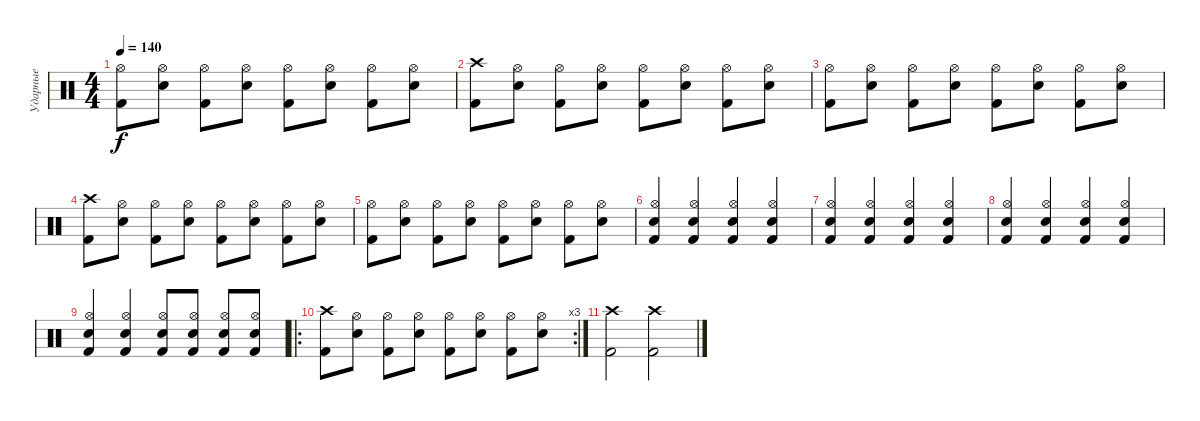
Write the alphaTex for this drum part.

\track ("Ударные" "Ударные") {instrument percussion}
\staff {score}
\articulation defaults
\ts (4 4)
\tempo 140
\clef neutral
\ks c
("Kick (hit) 2" "Hi-Hat (open)").8{dy f} ("Electric Snare (hit)" "Hi-Hat (open)").8 ("Kick (hit) 2" "Hi-Hat (open)").8 ("Electric Snare (hit)" "Hi-Hat (open)").8 ("Kick (hit) 2" "Hi-Hat (open)").8 ("Electric Snare (hit)" "Hi-Hat (open)").8 ("Kick (hit) 2" "Hi-Hat (open)").8 ("Electric Snare (hit)" "Hi-Hat (open)").8 |
("Kick (hit) 2" "Crash high (hit)").8 ("Electric Snare (hit)" "Hi-Hat (open)").8 ("Kick (hit) 2" "Hi-Hat (open)").8 ("Electric Snare (hit)" "Hi-Hat (open)").8 ("Kick (hit) 2" "Hi-Hat (open)").8 ("Electric Snare (hit)" "Hi-Hat (open)").8 ("Kick (hit) 2" "Hi-Hat (open)").8 ("Electric Snare (hit)" "Hi-Hat (open)").8 |
("Kick (hit) 2" "Hi-Hat (open)").8 ("Electric Snare (hit)" "Hi-Hat (open)").8 ("Kick (hit) 2" "Hi-Hat (open)").8 ("Electric Snare (hit)" "Hi-Hat (open)").8 ("Kick (hit) 2" "Hi-Hat (open)").8 ("Electric Snare (hit)" "Hi-Hat (open)").8 ("Kick (hit) 2" "Hi-Hat (open)").8 ("Electric Snare (hit)" "Hi-Hat (open)").8 |
("Kick (hit) 2" "Crash high (hit)").8 ("Electric Snare (hit)" "Hi-Hat (open)").8 ("Kick (hit) 2" "Hi-Hat (open)").8 ("Electric Snare (hit)" "Hi-Hat (open)").8 ("Kick (hit) 2" "Hi-Hat (open)").8 ("Electric Snare (hit)" "Hi-Hat (open)").8 ("Kick (hit) 2" "Hi-Hat (open)").8 ("Electric Snare (hit)" "Hi-Hat (open)").8 |
("Kick (hit) 2" "Hi-Hat (open)").8 ("Electric Snare (hit)" "Hi-Hat (open)").8 ("Kick (hit) 2" "Hi-Hat (open)").8 ("Electric Snare (hit)" "Hi-Hat (open)").8 ("Kick (hit) 2" "Hi-Hat (open)").8 ("Electric Snare (hit)" "Hi-Hat (open)").8 ("Kick (hit) 2" "Hi-Hat (open)").8 ("Electric Snare (hit)" "Hi-Hat (open)").8 |
("Kick (hit) 2" "Electric Snare (hit)" "Hi-Hat (open)").4 ("Kick (hit) 2" "Electric Snare (hit)" "Hi-Hat (open)").4 ("Kick (hit) 2" "Electric Snare (hit)" "Hi-Hat (open)").4 ("Kick (hit) 2" "Electric Snare (hit)" "Hi-Hat (open)").4 |
("Kick (hit) 2" "Electric Snare (hit)" "Hi-Hat (open)").4 ("Kick (hit) 2" "Electric Snare (hit)" "Hi-Hat (open)").4 ("Kick (hit) 2" "Electric Snare (hit)" "Hi-Hat (open)").4 ("Kick (hit) 2" "Electric Snare (hit)" "Hi-Hat (open)").4 |
("Kick (hit) 2" "Electric Snare (hit)" "Hi-Hat (open)").4 ("Kick (hit) 2" "Electric Snare (hit)" "Hi-Hat (open)").4 ("Kick (hit) 2" "Electric Snare (hit)" "Hi-Hat (open)").4 ("Kick (hit) 2" "Electric Snare (hit)" "Hi-Hat (open)").4 |
("Kick (hit) 2" "Electric Snare (hit)" "Hi-Hat (open)").4 ("Kick (hit) 2" "Electric Snare (hit)" "Hi-Hat (open)").4 ("Kick (hit) 2" "Electric Snare (hit)" "Hi-Hat (open)").8 ("Kick (hit) 2" "Electric Snare (hit)" "Hi-Hat (open)").8 ("Kick (hit) 2" "Electric Snare (hit)" "Hi-Hat (open)").8 ("Kick (hit) 2" "Electric Snare (hit)" "Hi-Hat (open)").8 |
\ro
\rc 3
("Kick (hit) 2" "Crash high (hit)").8 ("Electric Snare (hit)" "Hi-Hat (open)").8 ("Kick (hit) 2" "Hi-Hat (open)").8 ("Electric Snare (hit)" "Hi-Hat (open)").8 ("Kick (hit) 2" "Hi-Hat (open)").8 ("Electric Snare (hit)" "Hi-Hat (open)").8 ("Kick (hit) 2" "Hi-Hat (open)").8 ("Electric Snare (hit)" "Hi-Hat (open)").8 |
("Kick (hit) 2" "Crash high (hit)").2 ("Kick (hit) 2" "Crash high (hit)").2
